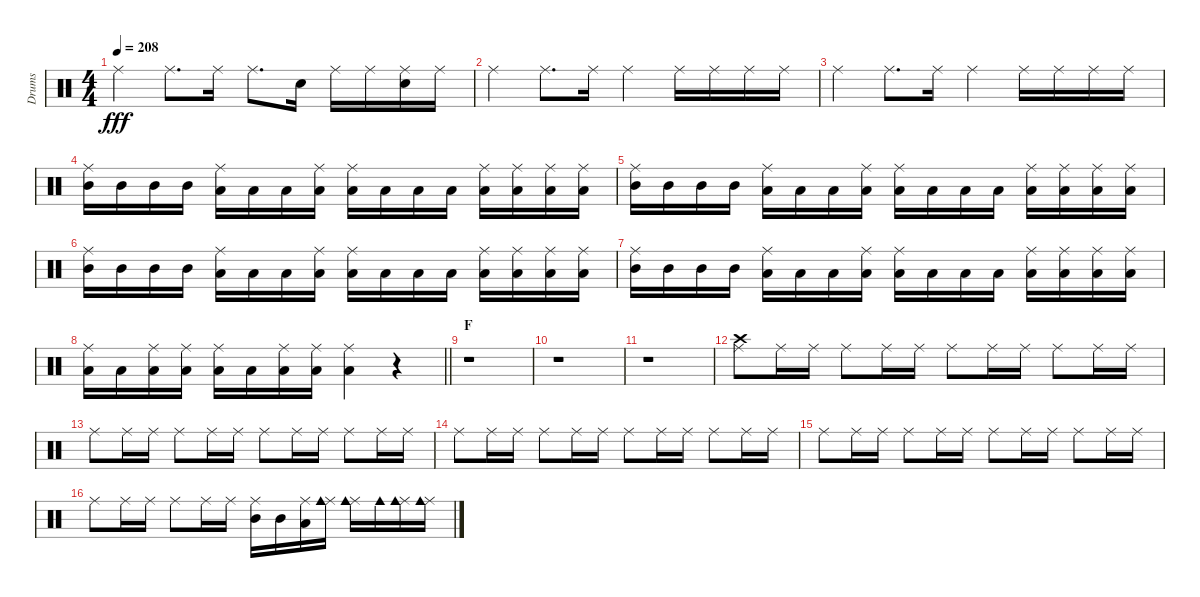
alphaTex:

\track ("Drums" "Drums") {instrument percussion}
\staff {score}
\articulation defaults
\ts (4 4)
\tempo 208
\clef neutral
\ks c "Ride (middle)".4{dy fff} "Ride (middle)".8{d} "Ride (middle)".16 "Ride (middle)".8{d} "Snare (hit) 2".16 "Ride (middle)".16 "Ride (middle)".16
("Ride (middle)" "Snare (hit) 2").16 "Ride (middle)".16 |
"Ride (middle)".4 "Ride (middle)".8{d} "Ride (middle)".16 "Ride (middle)".4 "Ride (middle)".16 "Ride (middle)".16 "Ride (middle)".16 "Ride (middle)".16 |
"Ride (middle)".4 "Ride (middle)".8{d} "Ride (middle)".16 "Ride (middle)".4 "Ride (middle)".16 "Ride (middle)".16 "Ride (middle)".16 "Ride (middle)".16 |
("Ride (middle)" "Mid Tom (hit)").16 "Mid Tom (hit)".16 "Mid Tom (hit)".16 "Mid Tom (hit)".16 ("Ride (middle)" "Low Tom (hit)").16 "Low Tom (hit)".16 "Low Tom (hit)".16 ("Ride (middle)" "Low Tom (hit)").16 ("Ride (middle)" "Low Tom (hit)").16 "Low Tom (hit)".16 "Low Tom (hit)".16 "Low Tom (hit)".16 ("Ride (middle)" "Low Tom (hit)").16 ("Ride (middle)" "Low Tom (hit)").16 ("Ride (middle)" "Low Tom (hit)").16 ("Ride (middle)" "Low Tom (hit)").16 |
("Ride (middle)" "Mid Tom (hit)").16 "Mid Tom (hit)".16 "Mid Tom (hit)".16 "Mid Tom (hit)".16 ("Ride (middle)" "Low Tom (hit)").16 "Low Tom (hit)".16 "Low Tom (hit)".16 ("Ride (middle)" "Low Tom (hit)").16 ("Ride (middle)" "Low Tom (hit)").16 "Low Tom (hit)".16 "Low Tom (hit)".16 "Low Tom (hit)".16 ("Ride (middle)" "Low Tom (hit)").16 ("Ride (middle)" "Low Tom (hit)").16 ("Ride (middle)" "Low Tom (hit)").16 ("Ride (middle)" "Low Tom (hit)").16 |
("Ride (middle)" "Mid Tom (hit)").16 "Mid Tom (hit)".16 "Mid Tom (hit)".16 "Mid Tom (hit)".16 ("Ride (middle)" "Low Tom (hit)").16 "Low Tom (hit)".16 "Low Tom (hit)".16 ("Ride (middle)" "Low Tom (hit)").16 ("Ride (middle)" "Low Tom (hit)").16 "Low Tom (hit)".16 "Low Tom (hit)".16 "Low Tom (hit)".16 ("Ride (middle)" "Low Tom (hit)").16 ("Ride (middle)" "Low Tom (hit)").16 ("Ride (middle)" "Low Tom (hit)").16 ("Ride (middle)" "Low Tom (hit)").16 |
("Ride (middle)" "Mid Tom (hit)").16 "Mid Tom (hit)".16 "Mid Tom (hit)".16 "Mid Tom (hit)".16 ("Ride (middle)" "Low Tom (hit)").16 "Low Tom (hit)".16 "Low Tom (hit)".16 ("Ride (middle)" "Low Tom (hit)").16 ("Ride (middle)" "Low Tom (hit)").16 "Low Tom (hit)".16 "Low Tom (hit)".16 "Low Tom (hit)".16 ("Ride (middle)" "Low Tom (hit)").16 ("Ride (middle)" "Low Tom (hit)").16 ("Ride (middle)" "Low Tom (hit)").16 ("Ride (middle)" "Low Tom (hit)").16 |
\barLineRight lightlight
("Ride (middle)" "Low Tom (hit)").16 "Low Tom (hit)".16 ("Ride (middle)" "Low Tom (hit)").16 ("Ride (middle)" "Low Tom (hit)").16 ("Ride (middle)" "Low Tom (hit)").16 "Low Tom (hit)".16 ("Ride (middle)" "Low Tom (hit)").16 ("Ride (middle)" "Low Tom (hit)").16 ("Ride (middle)" "Low Tom (hit)").4 r.4 |
\section ("" "F")
r.1 |
r.1 |
r.1 |
("Ride (middle)" "Crash high (hit)").8 "Ride (middle)".16 "Ride (middle)".16 "Ride (middle)".8 "Ride (middle)".16 "Ride (middle)".16 "Ride (middle)".8 "Ride (middle)".16 "Ride (middle)".16 "Ride (middle)".8 "Ride (middle)".16 "Ride (middle)".16 |
"Ride (middle)".8 "Ride (middle)".16 "Ride (middle)".16 "Ride (middle)".8 "Ride (middle)".16 "Ride (middle)".16 "Ride (middle)".8 "Ride (middle)".16 "Ride (middle)".16 "Ride (middle)".8 "Ride (middle)".16 "Ride (middle)".16 |
"Ride (middle)".8 "Ride (middle)".16 "Ride (middle)".16 "Ride (middle)".8 "Ride (middle)".16 "Ride (middle)".16 "Ride (middle)".8 "Ride (middle)".16 "Ride (middle)".16 "Ride (middle)".8 "Ride (middle)".16 "Ride (middle)".16 |
"Ride (middle)".8 "Ride (middle)".16 "Ride (middle)".16 "Ride (middle)".8 "Ride (middle)".16 "Ride (middle)".16 "Ride (middle)".8 "Ride (middle)".16 "Ride (middle)".16 "Ride (middle)".8 "Ride (middle)".16 "Ride (middle)".16 |
"Ride (middle)".8 "Ride (middle)".16 "Ride (middle)".16 "Ride (middle)".8 "Ride (middle)".16 "Ride (middle)".16 ("Ride (middle)" "Mid Tom (hit)").16 "Mid Tom (hit)".16 ("Ride (middle)" "Low Tom (hit)").16 ("Ride (middle)" "Cowbell medium (hit)").16 ("Ride (middle)" "Cowbell medium (hit)").16 "Cowbell medium (hit)".16 ("Ride (middle)" "Cowbell medium (hit)").16 ("Ride (middle)" "Cowbell medium (hit)").16
